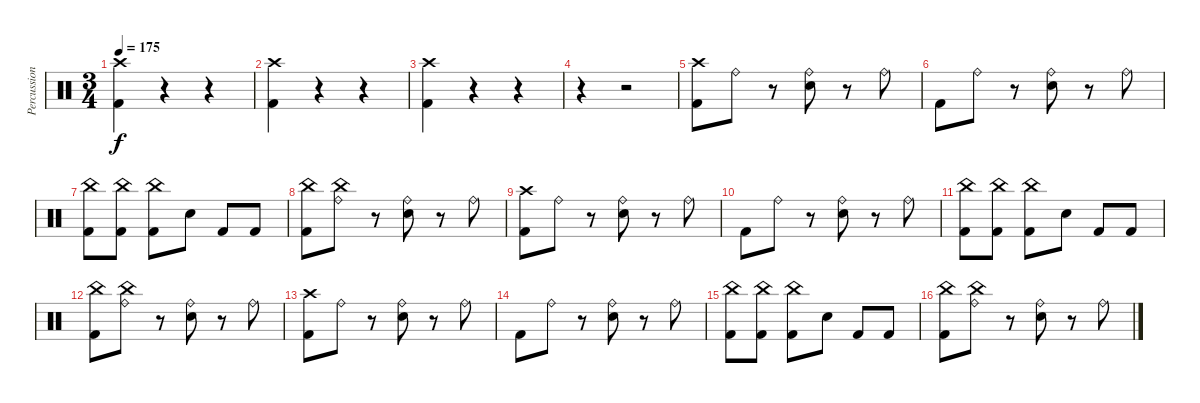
\track ("Percussion" "Percussion") {instrument percussion}
\staff {score}
\articulation defaults
\ts (3 4)
\tempo 175
\clef neutral
\ks c
("Crash high (hit)" "Kick (hit) 2").4{dy f} r.4 r.4 |
("Crash high (hit)" "Kick (hit) 2").4 r.4 r.4 |
("Crash high (hit)" "Kick (hit) 2").4 r.4 r.4 |
r.4 r.2 |
("Crash high (hit)" "Kick (hit) 2").8 "Ride (bell)".8 r.8 ("Ride (bell)" "Electric Snare (hit)").8 r.8 "Ride (bell)".8 |
"Kick (hit) 2".8 "Ride (bell)".8 r.8 ("Ride (bell)" "Electric Snare (hit)").8 r.8 "Ride (bell)".8 |
("China (hit)" "Kick (hit) 2").8 ("China (hit)" "Kick (hit) 2").8 ("China (hit)" "Kick (hit) 2").8 "Electric Snare (hit)".8 "Kick (hit) 2".8 "Kick (hit) 2".8 |
("China (hit)" "Kick (hit) 2").8 ("China (hit)" "Ride (bell)").8 r.8 ("Ride (bell)" "Electric Snare (hit)").8 r.8 "Ride (bell)".8 |
("Crash high (hit)" "Kick (hit) 2").8 "Ride (bell)".8 r.8 ("Ride (bell)" "Electric Snare (hit)").8 r.8 "Ride (bell)".8 |
"Kick (hit) 2".8 "Ride (bell)".8 r.8 ("Ride (bell)" "Electric Snare (hit)").8 r.8 "Ride (bell)".8 |
("China (hit)" "Kick (hit) 2").8 ("China (hit)" "Kick (hit) 2").8 ("China (hit)" "Kick (hit) 2").8 "Electric Snare (hit)".8 "Kick (hit) 2".8 "Kick (hit) 2".8 |
("China (hit)" "Kick (hit) 2").8 ("China (hit)" "Ride (bell)").8 r.8 ("Ride (bell)" "Electric Snare (hit)").8 r.8 "Ride (bell)".8 |
("Crash high (hit)" "Kick (hit) 2").8 "Ride (bell)".8 r.8 ("Ride (bell)" "Electric Snare (hit)").8 r.8 "Ride (bell)".8 |
"Kick (hit) 2".8 "Ride (bell)".8 r.8 ("Ride (bell)" "Electric Snare (hit)").8 r.8 "Ride (bell)".8 |
("China (hit)" "Kick (hit) 2").8 ("China (hit)" "Kick (hit) 2").8 ("China (hit)" "Kick (hit) 2").8 "Electric Snare (hit)".8 "Kick (hit) 2".8 "Kick (hit) 2".8 |
("China (hit)" "Kick (hit) 2").8 ("China (hit)" "Ride (bell)").8 r.8 ("Ride (bell)" "Electric Snare (hit)").8 r.8 "Ride (bell)".8
